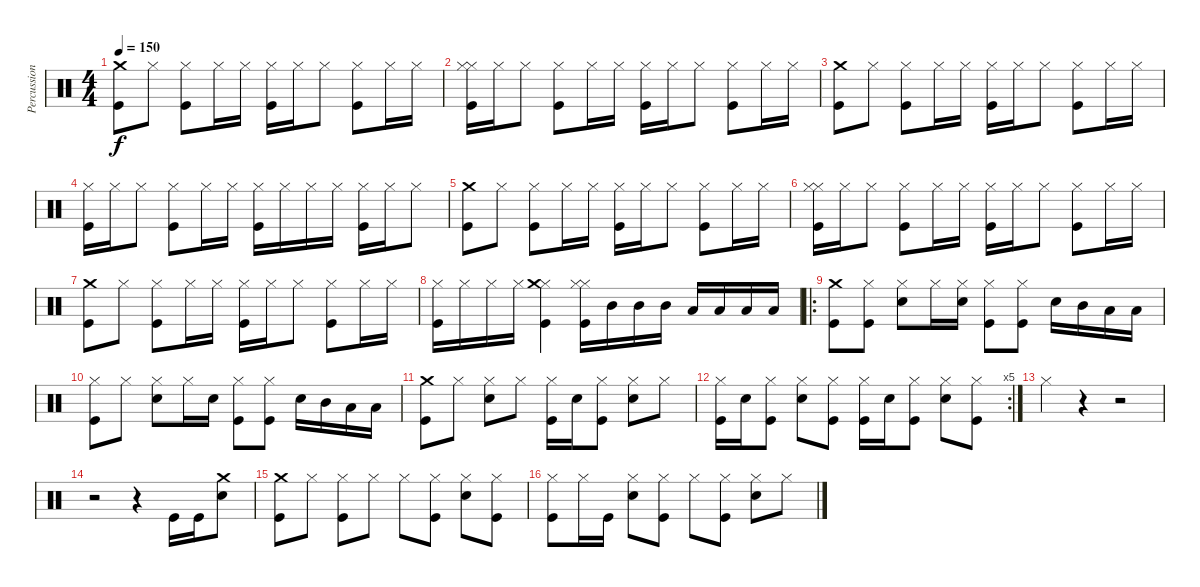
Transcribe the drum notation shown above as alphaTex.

\track ("Percussion" "Percussion") {instrument percussion}
\staff {score}
\articulation defaults
\ts (4 4)
\tempo 150
\clef neutral
\ks c
("Kick (hit)" "Crash medium (hit)").8{dy f} "Hi-Hat (closed)".8 ("Kick (hit)" "Hi-Hat (closed)").8 "Hi-Hat (closed)".16 "Hi-Hat (closed)".16 ("Hi-Hat (closed)" "Kick (hit)").16 "Hi-Hat (closed)".16 "Hi-Hat (closed)".8 ("Hi-Hat (closed)" "Kick (hit)").8 "Hi-Hat (closed)".16 "Hi-Hat (closed)".16 |
("Kick (hit)" "Hi-Hat (closed)" "Hi-Hat (closed)").16 "Hi-Hat (closed)".16 "Hi-Hat (closed)".8 ("Kick (hit)" "Hi-Hat (closed)").8 "Hi-Hat (closed)".16 "Hi-Hat (closed)".16 ("Hi-Hat (closed)" "Kick (hit)").16 "Hi-Hat (closed)".16 "Hi-Hat (closed)".8 ("Hi-Hat (closed)" "Kick (hit)").8 "Hi-Hat (closed)".16 "Hi-Hat (closed)".16 |
("Kick (hit)" "Crash medium (hit)").8 "Hi-Hat (closed)".8 ("Kick (hit)" "Hi-Hat (closed)").8 "Hi-Hat (closed)".16 "Hi-Hat (closed)".16 ("Hi-Hat (closed)" "Kick (hit)").16 "Hi-Hat (closed)".16 "Hi-Hat (closed)".8 ("Hi-Hat (closed)" "Kick (hit)").8 "Hi-Hat (closed)".16 "Hi-Hat (closed)".16 |
("Kick (hit)" "Hi-Hat (closed)").16 "Hi-Hat (closed)".16 "Hi-Hat (closed)".8 ("Kick (hit)" "Hi-Hat (closed)").8 "Hi-Hat (closed)".16 "Hi-Hat (closed)".16 ("Kick (hit)" "Hi-Hat (closed)").16 "Hi-Hat (closed)".16 "Hi-Hat (closed)".16 "Hi-Hat (closed)".16 ("Kick (hit)" "Hi-Hat (closed)").16 "Hi-Hat (closed)".16 "Hi-Hat (closed)".8 |
("Kick (hit)" "Crash medium (hit)").8 "Hi-Hat (closed)".8 ("Kick (hit)" "Hi-Hat (closed)").8 "Hi-Hat (closed)".16 "Hi-Hat (closed)".16 ("Hi-Hat (closed)" "Kick (hit)").16 "Hi-Hat (closed)".16 "Hi-Hat (closed)".8 ("Hi-Hat (closed)" "Kick (hit)").8 "Hi-Hat (closed)".16 "Hi-Hat (closed)".16 |
("Kick (hit)" "Hi-Hat (closed)" "Hi-Hat (closed)").16 "Hi-Hat (closed)".16 "Hi-Hat (closed)".8 ("Kick (hit)" "Hi-Hat (closed)").8 "Hi-Hat (closed)".16 "Hi-Hat (closed)".16 ("Hi-Hat (closed)" "Kick (hit)").16 "Hi-Hat (closed)".16 "Hi-Hat (closed)".8 ("Hi-Hat (closed)" "Kick (hit)").8 "Hi-Hat (closed)".16 "Hi-Hat (closed)".16 |
("Kick (hit)" "Crash medium (hit)").8 "Hi-Hat (closed)".8 ("Kick (hit)" "Hi-Hat (closed)").8 "Hi-Hat (closed)".16 "Hi-Hat (closed)".16 ("Hi-Hat (closed)" "Kick (hit)").16 "Hi-Hat (closed)".16 "Hi-Hat (closed)".8 ("Hi-Hat (closed)" "Kick (hit)").8 "Hi-Hat (closed)".16 "Hi-Hat (closed)".16 |
("Hi-Hat (closed)" "Kick (hit)").16 "Hi-Hat (closed)".16 "Hi-Hat (closed)".16 "Hi-Hat (closed)".16 ("Kick (hit)" "Hi-Hat (closed)" "Crash medium (hit)").4 ("Kick (hit)" "Hi-Hat (closed)" "Hi-Hat (closed)").16 "Mid Tom (hit)".16 "Mid Tom (hit)".16 "Mid Tom (hit)".16 "Low Tom (hit)".16 "Low Tom (hit)".16 "Low Floor Tom (hit)".16 "Low Floor Tom (hit)".16 |
\ro
("Crash medium (hit)" "Kick (hit)").8 ("Kick (hit)" "Hi-Hat (closed)").8 ("Hi-Hat (closed)" "Electric Snare (hit)").8 "Hi-Hat (closed)".16 ("Electric Snare (hit)" "Hi-Hat (closed)").16 ("Kick (hit)" "Hi-Hat (closed)").8 ("Kick (hit)" "Hi-Hat (closed)").8 "Electric Snare (hit)".16 "Mid Tom (hit)".16 "Low Tom (hit)".16 "Low Tom (hit)".16 |
("Hi-Hat (closed)" "Kick (hit)").8 "Hi-Hat (closed)".8 ("Hi-Hat (closed)" "Electric Snare (hit)").8 "Hi-Hat (closed)".16 "Electric Snare (hit)".16 ("Kick (hit)" "Hi-Hat (closed)").8 ("Kick (hit)" "Hi-Hat (closed)").8 "Electric Snare (hit)".16 "Mid Tom (hit)".16 "Low Tom (hit)".16 "Low Tom (hit)".16 |
("Crash medium (hit)" "Kick (hit)").8 "Hi-Hat (closed)".8 ("Electric Snare (hit)" "Hi-Hat (closed)").8 "Hi-Hat (closed)".8 ("Kick (hit)" "Hi-Hat (closed)").16 "Electric Snare (hit)".16 ("Kick (hit)" "Hi-Hat (closed)").8 ("Hi-Hat (closed)" "Electric Snare (hit)").8 "Hi-Hat (closed)".8 |
\rc 5
("Kick (hit)" "Hi-Hat (closed)").16 "Electric Snare (hit)".16 ("Kick (hit)" "Hi-Hat (closed)").8 ("Electric Snare (hit)" "Hi-Hat (closed)").8 ("Hi-Hat (closed)" "Kick (hit)").8 ("Kick (hit)" "Hi-Hat (closed)").16 "Electric Snare (hit)".16 ("Hi-Hat (closed)" "Kick (hit)").8 ("Electric Snare (hit)" "Hi-Hat (closed)").8 ("Hi-Hat (closed)" "Kick (hit)").8 |
"Hi-Hat (closed)".4 r.4 r.2 |
r.2 r.4 "Kick (hit)".16 "Kick (hit)".16 ("Crash medium (hit)" "Electric Snare (hit)").8 |
("Crash medium (hit)" "Kick (hit)").8 "Hi-Hat (closed)".8 ("Hi-Hat (closed)" "Kick (hit)").8 "Hi-Hat (closed)".8 "Hi-Hat (closed)".8 ("Hi-Hat (closed)" "Kick (hit)").8 ("Hi-Hat (closed)" "Electric Snare (hit)").8 ("Hi-Hat (closed)" "Kick (hit)").8 |
("Kick (hit)" "Hi-Hat (closed)").8 "Hi-Hat (closed)".16 "Kick (hit)".16 ("Electric Snare (hit)" "Hi-Hat (closed)").8 ("Kick (hit)" "Hi-Hat (closed)").8 "Hi-Hat (closed)".8 ("Hi-Hat (closed)" "Kick (hit)").8 ("Electric Snare (hit)" "Hi-Hat (closed)").8 "Hi-Hat (closed)".8
